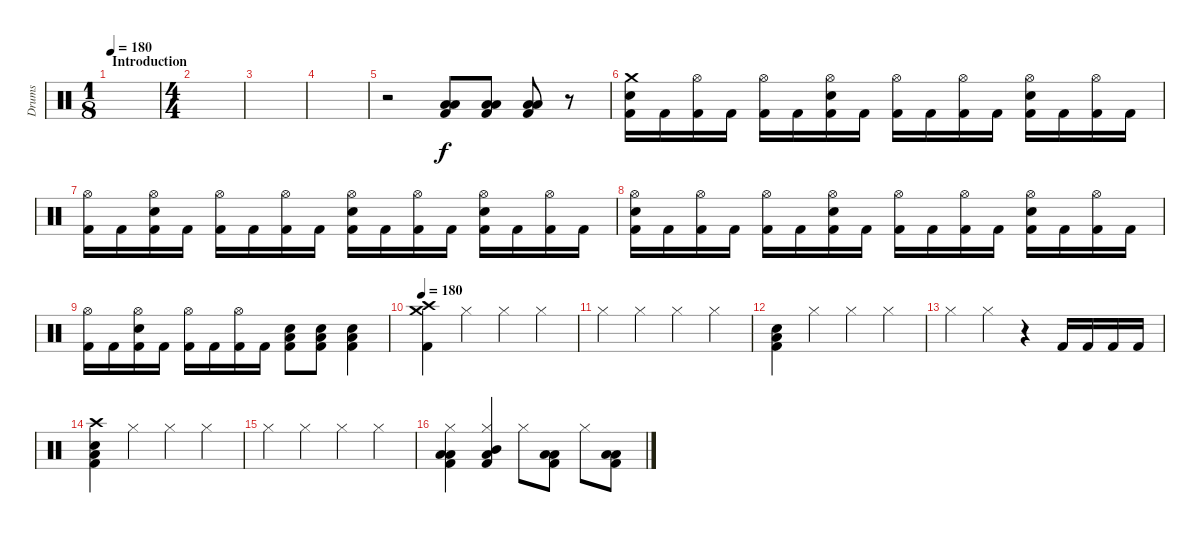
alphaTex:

\track ("Drums" "Drums") {instrument percussion}
\staff {score}
\articulation defaults
\ts (1 8)
\section ("" "Introduction")
\tempo 180
\tempo 190
\tempo 180
\clef neutral
\ks c
|
\ts (4 4)
|
|
|
r.2 ("Low Tom (hit)" "Low Floor Tom (hit)" "Kick (hit) 2").8 ("Low Tom (hit)" "Low Floor Tom (hit)" "Kick (hit) 2").8 ("Low Tom (hit)" "Low Floor Tom (hit)" "Kick (hit) 2").8 r.8 |
("Crash medium (hit)" "Snare (hit) 2" "Kick (hit) 2").16 "Kick (hit) 2".16 ("Hi-Hat (open)" "Kick (hit) 2").16 "Kick (hit) 2".16 ("Hi-Hat (open)" "Kick (hit) 2").16 "Kick (hit) 2".16 ("Hi-Hat (open)" "Snare (hit) 2" "Kick (hit) 2").16 "Kick (hit) 2".16 ("Hi-Hat (open)" "Kick (hit) 2").16 "Kick (hit) 2".16 ("Hi-Hat (open)" "Kick (hit) 2").16 "Kick (hit) 2".16 ("Hi-Hat (open)" "Snare (hit) 2" "Kick (hit) 2").16 "Kick (hit) 2".16 ("Hi-Hat (open)" "Kick (hit) 2").16 "Kick (hit) 2".16 |
("Hi-Hat (open)" "Kick (hit) 2").16 "Kick (hit) 2".16 ("Hi-Hat (open)" "Snare (hit) 2" "Kick (hit) 2").16 "Kick (hit) 2".16 ("Hi-Hat (open)" "Kick (hit) 2").16 "Kick (hit) 2".16 ("Hi-Hat (open)" "Kick (hit) 2").16 "Kick (hit) 2".16 ("Hi-Hat (open)" "Snare (hit) 2" "Kick (hit) 2").16 "Kick (hit) 2".16 ("Hi-Hat (open)" "Kick (hit) 2").16 "Kick (hit) 2".16 ("Hi-Hat (open)" "Snare (hit) 2" "Kick (hit) 2").16 "Kick (hit) 2".16 ("Hi-Hat (open)" "Kick (hit) 2").16 "Kick (hit) 2".16 |
("Hi-Hat (open)" "Snare (hit) 2" "Kick (hit) 2").16 "Kick (hit) 2".16 ("Hi-Hat (open)" "Kick (hit) 2").16 "Kick (hit) 2".16 ("Hi-Hat (open)" "Kick (hit) 2").16 "Kick (hit) 2".16 ("Hi-Hat (open)" "Snare (hit) 2" "Kick (hit) 2").16 "Kick (hit) 2".16 ("Hi-Hat (open)" "Kick (hit) 2").16 "Kick (hit) 2".16 ("Hi-Hat (open)" "Kick (hit) 2").16 "Kick (hit) 2".16 ("Hi-Hat (open)" "Snare (hit) 2" "Kick (hit) 2").16 "Kick (hit) 2".16 ("Hi-Hat (open)" "Kick (hit) 2").16 "Kick (hit) 2".16 |
("Hi-Hat (open)" "Kick (hit) 2").16 "Kick (hit) 2".16 ("Hi-Hat (open)" "Snare (hit) 2" "Kick (hit) 2").16 "Kick (hit) 2".16 ("Hi-Hat (open)" "Kick (hit) 2").16 "Kick (hit) 2".16 ("Hi-Hat (open)" "Kick (hit) 2").16 "Kick (hit) 2".16 ("Snare (hit) 2" "Low Floor Tom (hit)" "Kick (hit) 2").8 ("Snare (hit) 2" "Low Floor Tom (hit)" "Kick (hit) 2").8 ("Snare (hit) 2" "Low Floor Tom (hit)" "Kick (hit) 2").4 |
\tempo 180
("Crash medium (hit)" "Crash high (hit)" "Kick (hit) 2").4 "Hi-Hat (closed)".4 "Hi-Hat (closed)".4 "Hi-Hat (closed)".4 |
"Hi-Hat (closed)".4 "Hi-Hat (closed)".4 "Hi-Hat (closed)".4 "Hi-Hat (closed)".4 |
("Snare (hit) 2" "Low Floor Tom (hit)" "Kick (hit) 2").4 "Hi-Hat (closed)".4 "Hi-Hat (closed)".4 "Hi-Hat (closed)".4 |
"Hi-Hat (closed)".4 "Hi-Hat (closed)".4 r.4 "Kick (hit) 2".16 "Kick (hit) 2".16 "Kick (hit) 2".16 "Kick (hit) 2".16 |
("Crash high (hit)" "Snare (hit) 2" "Low Floor Tom (hit)" "Kick (hit) 2").4 "Hi-Hat (closed)".4 "Hi-Hat (closed)".4 "Hi-Hat (closed)".4 |
"Hi-Hat (closed)".4 "Hi-Hat (closed)".4 "Hi-Hat (closed)".4 "Hi-Hat (closed)".4 |
("Hi-Hat (closed)" "Low Tom (hit)" "Low Floor Tom (hit)" "Kick (hit) 2").4 ("Hi-Hat (closed)" "Mid Tom (hit)" "Low Floor Tom (hit)" "Kick (hit) 2").4 "Hi-Hat (closed)".8 ("Low Tom (hit)" "Low Floor Tom (hit)" "Kick (hit) 2").8 "Hi-Hat (closed)".8 ("Low Tom (hit)" "Low Floor Tom (hit)" "Kick (hit) 2").8
